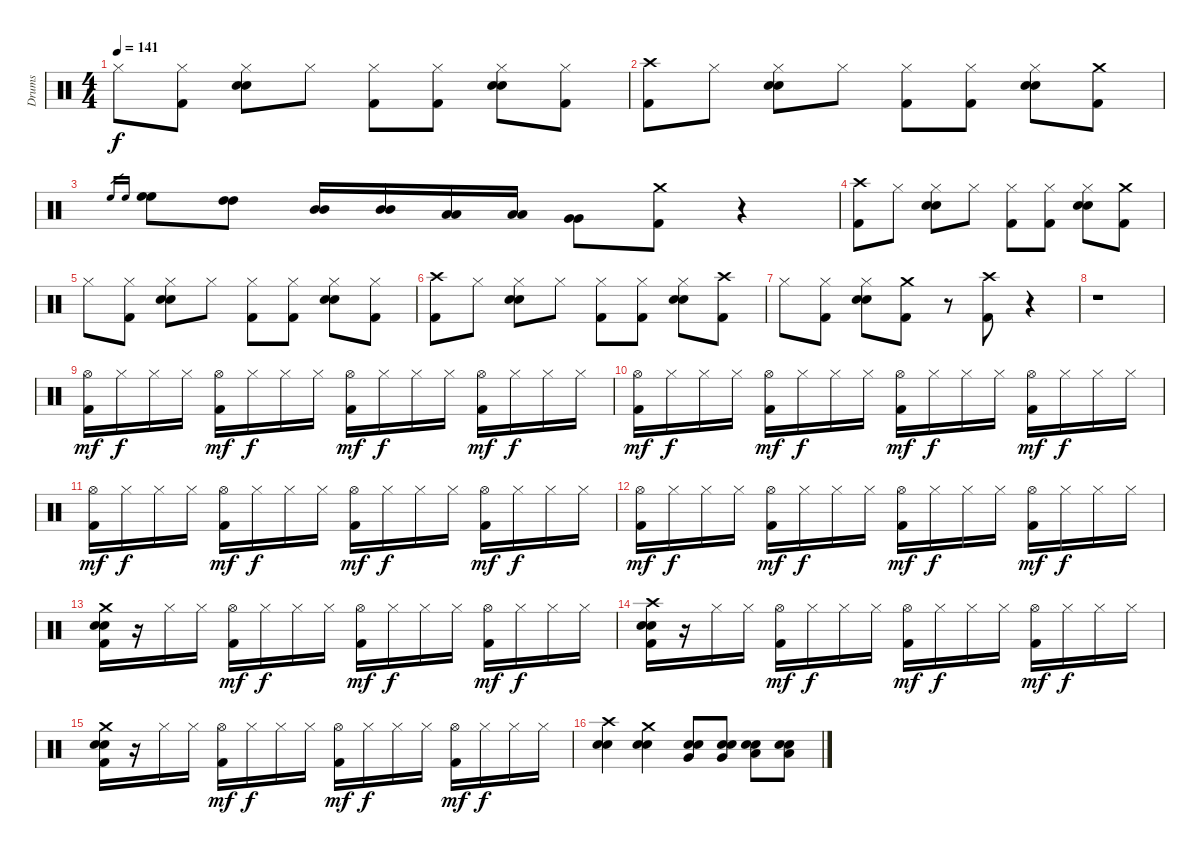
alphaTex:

\track ("Drums " "Drums ") {instrument percussion}
\staff {score}
\articulation defaults
\ts (4 4)
\tempo 141
\clef neutral
\ks c "Hi-Hat (closed)".8{dy f}
("Hi-Hat (closed)" "Kick (hit) 2").8 ("Hi-Hat (closed)" "Snare (hit) 2" "Electric Snare (hit)").8 "Hi-Hat (closed)".8 ("Hi-Hat (closed)" "Kick (hit) 2").8 ("Hi-Hat (closed)" "Kick (hit) 2").8 ("Hi-Hat (closed)" "Snare (hit) 2" "Electric Snare (hit)").8 ("Hi-Hat (closed)" "Kick (hit) 2").8 |
("Crash high (hit)" "Kick (hit) 2").8 "Hi-Hat (closed)".8 ("Hi-Hat (closed)" "Snare (hit) 2" "Electric Snare (hit)").8 "Hi-Hat (closed)".8 ("Hi-Hat (closed)" "Kick (hit) 2").8 ("Hi-Hat (closed)" "Kick (hit) 2").8 ("Hi-Hat (closed)" "Snare (hit) 2" "Electric Snare (hit)").8 ("Crash medium (hit)" "Kick (hit) 2").8 |
"High Floor Tom (hit)".16{gr} "High Floor Tom (hit)".16{gr} ("High Floor Tom (hit)" "High Floor Tom (hit)").8 ("High Tom (hit)" "High Tom (hit)").8 ("Mid Tom (hit)" "Mid Tom (hit)").16 ("Mid Tom (hit)" "Mid Tom (hit)").16 ("Low Tom (hit)" "Low Tom (hit)").16 ("Low Tom (hit)" "Low Tom (hit)").16 ("Very Low Tom (hit)" "Very Low Tom (hit)").8 ("Crash medium (hit)" "Kick (hit) 2").8 r.4 |
("Crash high (hit)" "Kick (hit) 2").8 "Hi-Hat (closed)".8 ("Hi-Hat (closed)" "Snare (hit) 2" "Electric Snare (hit)").8 "Hi-Hat (closed)".8 ("Hi-Hat (closed)" "Kick (hit) 2").8 ("Hi-Hat (closed)" "Kick (hit) 2").8 ("Hi-Hat (closed)" "Snare (hit) 2" "Electric Snare (hit)").8 ("Crash medium (hit)" "Kick (hit) 2").8 |
"Hi-Hat (closed)".8 ("Hi-Hat (closed)" "Kick (hit) 2").8 ("Hi-Hat (closed)" "Snare (hit) 2" "Electric Snare (hit)").8 "Hi-Hat (closed)".8 ("Hi-Hat (closed)" "Kick (hit) 2").8 ("Hi-Hat (closed)" "Kick (hit) 2").8 ("Hi-Hat (closed)" "Snare (hit) 2" "Electric Snare (hit)").8 ("Hi-Hat (closed)" "Kick (hit) 2").8 |
("Crash high (hit)" "Kick (hit) 2").8 "Hi-Hat (closed)".8 ("Hi-Hat (closed)" "Snare (hit) 2" "Electric Snare (hit)").8 "Hi-Hat (closed)".8 ("Hi-Hat (closed)" "Kick (hit) 2").8 ("Hi-Hat (closed)" "Kick (hit) 2").8 ("Hi-Hat (closed)" "Snare (hit) 2" "Electric Snare (hit)").8 ("Crash high (hit)" "Kick (hit) 2").8 |
"Hi-Hat (closed)".8 ("Hi-Hat (closed)" "Kick (hit) 2").8 ("Hi-Hat (closed)" "Snare (hit) 2" "Electric Snare (hit)").8 ("Crash medium (hit)" "Kick (hit) 2").8 r.8 ("Crash high (hit)" "Kick (hit) 2").8 r.4 |
r.1 |
("Hi-Hat (open)" "Kick (hit) 2").16{dy mf} "Hi-Hat (closed)".16{dy f} "Hi-Hat (closed)".16 "Hi-Hat (closed)".16 ("Hi-Hat (open)" "Kick (hit) 2").16{dy mf} "Hi-Hat (closed)".16{dy f} "Hi-Hat (closed)".16 "Hi-Hat (closed)".16 ("Hi-Hat (open)" "Kick (hit) 2").16{dy mf} "Hi-Hat (closed)".16{dy f} "Hi-Hat (closed)".16 "Hi-Hat (closed)".16 ("Hi-Hat (open)" "Kick (hit) 2").16{dy mf} "Hi-Hat (closed)".16{dy f} "Hi-Hat (closed)".16 "Hi-Hat (closed)".16 |
("Hi-Hat (open)" "Kick (hit) 2").16{dy mf} "Hi-Hat (closed)".16{dy f} "Hi-Hat (closed)".16 "Hi-Hat (closed)".16 ("Hi-Hat (open)" "Kick (hit) 2").16{dy mf} "Hi-Hat (closed)".16{dy f} "Hi-Hat (closed)".16 "Hi-Hat (closed)".16 ("Hi-Hat (open)" "Kick (hit) 2").16{dy mf} "Hi-Hat (closed)".16{dy f} "Hi-Hat (closed)".16 "Hi-Hat (closed)".16 ("Hi-Hat (open)" "Kick (hit) 2").16{dy mf} "Hi-Hat (closed)".16{dy f} "Hi-Hat (closed)".16 "Hi-Hat (closed)".16 |
("Hi-Hat (open)" "Kick (hit) 2").16{dy mf} "Hi-Hat (closed)".16{dy f} "Hi-Hat (closed)".16 "Hi-Hat (closed)".16 ("Hi-Hat (open)" "Kick (hit) 2").16{dy mf} "Hi-Hat (closed)".16{dy f} "Hi-Hat (closed)".16 "Hi-Hat (closed)".16 ("Hi-Hat (open)" "Kick (hit) 2").16{dy mf} "Hi-Hat (closed)".16{dy f} "Hi-Hat (closed)".16 "Hi-Hat (closed)".16 ("Hi-Hat (open)" "Kick (hit) 2").16{dy mf} "Hi-Hat (closed)".16{dy f} "Hi-Hat (closed)".16 "Hi-Hat (closed)".16 |
("Hi-Hat (open)" "Kick (hit) 2").16{dy mf} "Hi-Hat (closed)".16{dy f} "Hi-Hat (closed)".16 "Hi-Hat (closed)".16 ("Hi-Hat (open)" "Kick (hit) 2").16{dy mf} "Hi-Hat (closed)".16{dy f} "Hi-Hat (closed)".16 "Hi-Hat (closed)".16 ("Hi-Hat (open)" "Kick (hit) 2").16{dy mf} "Hi-Hat (closed)".16{dy f} "Hi-Hat (closed)".16 "Hi-Hat (closed)".16 ("Hi-Hat (open)" "Kick (hit) 2").16{dy mf} "Hi-Hat (closed)".16{dy f} "Hi-Hat (closed)".16 "Hi-Hat (closed)".16 |
("Crash medium (hit)" "Snare (hit) 2" "Electric Snare (hit)" "Kick (hit) 2").16 r.16 "Hi-Hat (closed)".16 "Hi-Hat (closed)".16 ("Hi-Hat (open)" "Kick (hit) 2").16{dy mf} "Hi-Hat (closed)".16{dy f} "Hi-Hat (closed)".16 "Hi-Hat (closed)".16 ("Hi-Hat (open)" "Kick (hit) 2").16{dy mf} "Hi-Hat (closed)".16{dy f} "Hi-Hat (closed)".16 "Hi-Hat (closed)".16 ("Hi-Hat (open)" "Kick (hit) 2").16{dy mf} "Hi-Hat (closed)".16{dy f} "Hi-Hat (closed)".16 "Hi-Hat (closed)".16 |
("Crash high (hit)" "Snare (hit) 2" "Electric Snare (hit)" "Kick (hit) 2").16 r.16 "Hi-Hat (closed)".16 "Hi-Hat (closed)".16 ("Hi-Hat (open)" "Kick (hit) 2").16{dy mf} "Hi-Hat (closed)".16{dy f} "Hi-Hat (closed)".16 "Hi-Hat (closed)".16 ("Hi-Hat (open)" "Kick (hit) 2").16{dy mf} "Hi-Hat (closed)".16{dy f} "Hi-Hat (closed)".16 "Hi-Hat (closed)".16 ("Hi-Hat (open)" "Kick (hit) 2").16{dy mf} "Hi-Hat (closed)".16{dy f} "Hi-Hat (closed)".16 "Hi-Hat (closed)".16 |
("Crash medium (hit)" "Snare (hit) 2" "Electric Snare (hit)" "Kick (hit) 2").16 r.16 "Hi-Hat (closed)".16 "Hi-Hat (closed)".16 ("Hi-Hat (open)" "Kick (hit) 2").16{dy mf} "Hi-Hat (closed)".16{dy f} "Hi-Hat (closed)".16 "Hi-Hat (closed)".16 ("Hi-Hat (open)" "Kick (hit) 2").16{dy mf} "Hi-Hat (closed)".16{dy f} "Hi-Hat (closed)".16 "Hi-Hat (closed)".16 ("Hi-Hat (open)" "Kick (hit) 2").16{dy mf} "Hi-Hat (closed)".16{dy f} "Hi-Hat (closed)".16 "Hi-Hat (closed)".16 |
("Crash high (hit)" "Snare (hit) 2" "Electric Snare (hit)").4 ("Crash medium (hit)" "Snare (hit) 2" "Electric Snare (hit)").4 ("Snare (hit) 2" "Electric Snare (hit)" "Very Low Tom (hit)").8 ("Snare (hit) 2" "Electric Snare (hit)" "Very Low Tom (hit)").8 ("Snare (hit) 2" "Electric Snare (hit)" "Low Floor Tom (hit)").8 ("Snare (hit) 2" "Electric Snare (hit)" "Low Floor Tom (hit)").8
